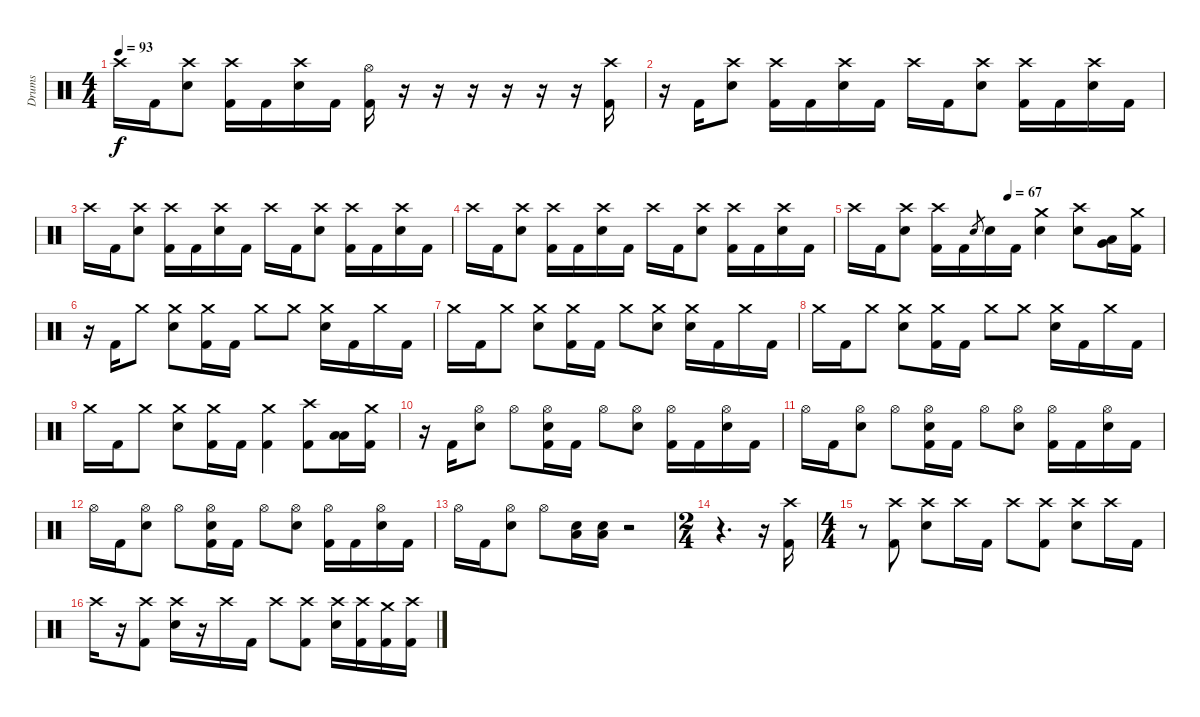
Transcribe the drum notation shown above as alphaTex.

\track ("Drums" "Drums") {instrument percussion}
\staff {score}
\articulation defaults
\ts (4 4)
\tempo 93
\clef neutral
\ks c "Crash high (hit)".16{dy f} "Kick (hit) 2".16
("Crash high (hit)" "Snare (hit) 2").8 ("Crash high (hit)" "Kick (hit) 2").16 "Kick (hit) 2".16 ("Crash high (hit)" "Snare (hit) 2").16 "Kick (hit) 2".16 ("Hi-Hat (open)" "Kick (hit) 2").16 r.16 r.16 r.16 r.16 r.16 r.16 ("Crash high (hit)" "Kick (hit) 2").16 |
r.16 "Kick (hit) 2".16 ("Crash high (hit)" "Snare (hit) 2").8 ("Crash high (hit)" "Kick (hit) 2").16 "Kick (hit) 2".16 ("Crash high (hit)" "Snare (hit) 2").16 "Kick (hit) 2".16 "Crash high (hit)".16 "Kick (hit) 2".16 ("Crash high (hit)" "Snare (hit) 2").8 ("Crash high (hit)" "Kick (hit) 2").16 "Kick (hit) 2".16 ("Crash high (hit)" "Snare (hit) 2").16 "Kick (hit) 2".16 |
"Crash high (hit)".16 "Kick (hit) 2".16 ("Crash high (hit)" "Snare (hit) 2").8 ("Crash high (hit)" "Kick (hit) 2").16 "Kick (hit) 2".16 ("Crash high (hit)" "Snare (hit) 2").16 "Kick (hit) 2".16 "Crash high (hit)".16 "Kick (hit) 2".16 ("Crash high (hit)" "Snare (hit) 2").8 ("Crash high (hit)" "Kick (hit) 2").16 "Kick (hit) 2".16 ("Crash high (hit)" "Snare (hit) 2").16 "Kick (hit) 2".16 |
"Crash high (hit)".16 "Kick (hit) 2".16 ("Crash high (hit)" "Snare (hit) 2").8 ("Crash high (hit)" "Kick (hit) 2").16 "Kick (hit) 2".16 ("Crash high (hit)" "Snare (hit) 2").16 "Kick (hit) 2".16 "Crash high (hit)".16 "Kick (hit) 2".16 ("Crash high (hit)" "Snare (hit) 2").8 ("Crash high (hit)" "Kick (hit) 2").16 "Kick (hit) 2".16 ("Crash high (hit)" "Snare (hit) 2").16 "Kick (hit) 2".16 |
\tempo (67 0.5)
"Crash high (hit)".16 "Kick (hit) 2".16 ("Crash high (hit)" "Snare (hit) 2").8 ("Crash high (hit)" "Kick (hit) 2").16 "Kick (hit) 2".16 "Snare (hit) 2".8{gr} "Snare (hit) 2".16 "Kick (hit) 2".16 ("Crash medium (hit)" "Snare (hit) 2").4 ("Crash high (hit)" "Snare (hit) 2").8 ("Very Low Tom (hit)" "Low Floor Tom (hit)").16 ("Crash medium (hit)" "Kick (hit) 2").16 |
r.16 "Kick (hit) 2".16 "Crash medium (hit)".8 ("Crash medium (hit)" "Snare (hit) 2").8 ("Crash medium (hit)" "Kick (hit) 2").16 "Kick (hit) 2".16 "Crash medium (hit)".8 "Crash medium (hit)".8 ("Crash medium (hit)" "Snare (hit) 2").16 "Kick (hit) 2".16 "Crash medium (hit)".16 "Kick (hit) 2".16 |
"Crash medium (hit)".16 "Kick (hit) 2".16 "Crash medium (hit)".8 ("Crash medium (hit)" "Snare (hit) 2").8 ("Crash medium (hit)" "Kick (hit) 2").16 "Kick (hit) 2".16 "Crash medium (hit)".8 ("Crash medium (hit)" "Snare (hit) 2").8 ("Crash medium (hit)" "Snare (hit) 2").16 "Kick (hit) 2".16 "Crash medium (hit)".16 "Kick (hit) 2".16 |
"Crash medium (hit)".16 "Kick (hit) 2".16 "Crash medium (hit)".8 ("Crash medium (hit)" "Snare (hit) 2").8 ("Crash medium (hit)" "Kick (hit) 2").16 "Kick (hit) 2".16 "Crash medium (hit)".8 "Crash medium (hit)".8 ("Crash medium (hit)" "Snare (hit) 2").16 "Kick (hit) 2".16 "Crash medium (hit)".16 "Kick (hit) 2".16 |
"Crash medium (hit)".16 "Kick (hit) 2".16 "Crash medium (hit)".8 ("Crash medium (hit)" "Snare (hit) 2").8 ("Crash medium (hit)" "Kick (hit) 2").16 "Kick (hit) 2".16 ("Crash medium (hit)" "Kick (hit) 2").4 ("Crash high (hit)" "Kick (hit) 2").8 ("Low Tom (hit)" "Low Floor Tom (hit)").16 ("Crash medium (hit)" "Kick (hit) 2").16 |
r.16 "Kick (hit) 2".16 ("Hi-Hat (open)" "Snare (hit) 2").8 "Hi-Hat (open)".8 ("Hi-Hat (open)" "Snare (hit) 2" "Kick (hit) 2").16 "Kick (hit) 2".16 "Hi-Hat (open)".8 ("Hi-Hat (open)" "Snare (hit) 2").8 ("Hi-Hat (open)" "Kick (hit) 2").16 "Kick (hit) 2".16 ("Hi-Hat (open)" "Snare (hit) 2").16 "Kick (hit) 2".16 |
"Hi-Hat (open)".16 "Kick (hit) 2".16 ("Hi-Hat (open)" "Snare (hit) 2").8 "Hi-Hat (open)".8 ("Hi-Hat (open)" "Snare (hit) 2" "Kick (hit) 2").16 "Kick (hit) 2".16 "Hi-Hat (open)".8 ("Hi-Hat (open)" "Snare (hit) 2").8 ("Hi-Hat (open)" "Kick (hit) 2").16 "Kick (hit) 2".16 ("Hi-Hat (open)" "Snare (hit) 2").16 "Kick (hit) 2".16 |
"Hi-Hat (open)".16 "Kick (hit) 2".16 ("Hi-Hat (open)" "Snare (hit) 2").8 "Hi-Hat (open)".8 ("Hi-Hat (open)" "Snare (hit) 2" "Kick (hit) 2").16 "Kick (hit) 2".16 "Hi-Hat (open)".8 ("Hi-Hat (open)" "Snare (hit) 2").8 ("Hi-Hat (open)" "Kick (hit) 2").16 "Kick (hit) 2".16 ("Hi-Hat (open)" "Snare (hit) 2").16 "Kick (hit) 2".16 |
"Hi-Hat (open)".16 "Kick (hit) 2".16 ("Hi-Hat (open)" "Snare (hit) 2").8 "Hi-Hat (open)".8 ("Low Floor Tom (hit)" "Snare (hit) 2").16 ("Low Floor Tom (hit)" "Snare (hit) 2").16 r.2 |
\ts (2 4)
r.4{d} r.16 ("Crash high (hit)" "Kick (hit) 2").16 |
\ts (4 4)
r.8 ("Crash high (hit)" "Kick (hit) 2").8 ("Crash high (hit)" "Snare (hit) 2").8 "Crash high (hit)".16 "Kick (hit) 2".16 "Crash high (hit)".8 ("Crash high (hit)" "Kick (hit) 2").8 ("Crash high (hit)" "Snare (hit) 2").8 "Crash high (hit)".16 "Kick (hit) 2".16 |
"Crash high (hit)".16 r.16 ("Crash high (hit)" "Kick (hit) 2").8 ("Crash high (hit)" "Snare (hit) 2").16 r.16 "Crash high (hit)".16 "Kick (hit) 2".16 "Crash high (hit)".8 ("Crash high (hit)" "Kick (hit) 2").8 ("Crash high (hit)" "Snare (hit) 2").16 ("Crash high (hit)" "Kick (hit) 2").16 ("Crash medium (hit)" "Kick (hit) 2").16 ("Crash high (hit)" "Kick (hit) 2").16
